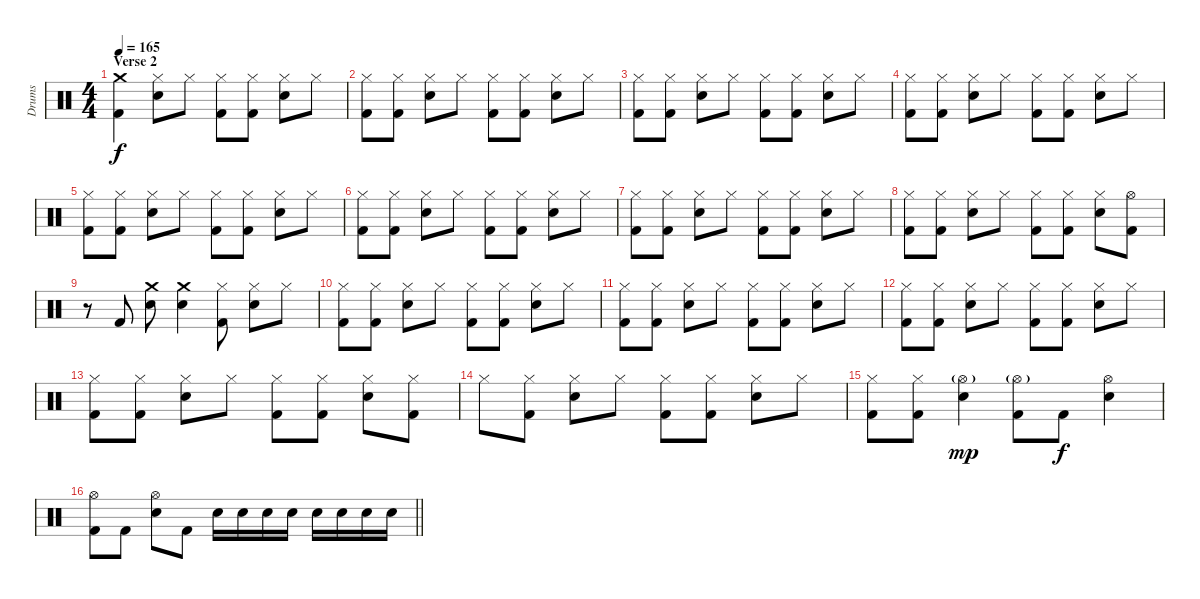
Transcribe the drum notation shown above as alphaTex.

\track ("Drums" "Drums") {instrument percussion}
\staff {score}
\articulation defaults
\ts (4 4)
\section ("" "Verse 2")
\tempo 165
\clef neutral
\ks c
("Crash medium (hit)" "Kick (hit) 2").4{dy f} ("Hi-Hat (closed)" "Electric Snare (hit)").8 "Hi-Hat (closed)".8 ("Hi-Hat (closed)" "Kick (hit) 2").8 ("Hi-Hat (closed)" "Kick (hit) 2").8 ("Hi-Hat (closed)" "Electric Snare (hit)").8 "Hi-Hat (closed)".8 |
("Hi-Hat (closed)" "Kick (hit) 2").8 ("Hi-Hat (closed)" "Kick (hit) 2").8 ("Hi-Hat (closed)" "Electric Snare (hit)").8 "Hi-Hat (closed)".8 ("Hi-Hat (closed)" "Kick (hit) 2").8 ("Hi-Hat (closed)" "Kick (hit) 2").8 ("Hi-Hat (closed)" "Electric Snare (hit)").8 "Hi-Hat (closed)".8 |
("Hi-Hat (closed)" "Kick (hit) 2").8 ("Hi-Hat (closed)" "Kick (hit) 2").8 ("Hi-Hat (closed)" "Electric Snare (hit)").8 "Hi-Hat (closed)".8 ("Hi-Hat (closed)" "Kick (hit) 2").8 ("Hi-Hat (closed)" "Kick (hit) 2").8 ("Hi-Hat (closed)" "Electric Snare (hit)").8 "Hi-Hat (closed)".8 |
("Hi-Hat (closed)" "Kick (hit) 2").8 ("Hi-Hat (closed)" "Kick (hit) 2").8 ("Hi-Hat (closed)" "Electric Snare (hit)").8 "Hi-Hat (closed)".8 ("Hi-Hat (closed)" "Kick (hit) 2").8 ("Hi-Hat (closed)" "Kick (hit) 2").8 ("Hi-Hat (closed)" "Electric Snare (hit)").8 "Hi-Hat (closed)".8 |
("Hi-Hat (closed)" "Kick (hit) 2").8 ("Hi-Hat (closed)" "Kick (hit) 2").8 ("Hi-Hat (closed)" "Electric Snare (hit)").8 "Hi-Hat (closed)".8 ("Hi-Hat (closed)" "Kick (hit) 2").8 ("Hi-Hat (closed)" "Kick (hit) 2").8 ("Hi-Hat (closed)" "Electric Snare (hit)").8 "Hi-Hat (closed)".8 |
("Hi-Hat (closed)" "Kick (hit) 2").8 ("Hi-Hat (closed)" "Kick (hit) 2").8 ("Hi-Hat (closed)" "Electric Snare (hit)").8 "Hi-Hat (closed)".8 ("Hi-Hat (closed)" "Kick (hit) 2").8 ("Hi-Hat (closed)" "Kick (hit) 2").8 ("Hi-Hat (closed)" "Electric Snare (hit)").8 "Hi-Hat (closed)".8 |
("Hi-Hat (closed)" "Kick (hit) 2").8 ("Hi-Hat (closed)" "Kick (hit) 2").8 ("Hi-Hat (closed)" "Electric Snare (hit)").8 "Hi-Hat (closed)".8 ("Hi-Hat (closed)" "Kick (hit) 2").8 ("Hi-Hat (closed)" "Kick (hit) 2").8 ("Hi-Hat (closed)" "Electric Snare (hit)").8 "Hi-Hat (closed)".8 |
("Hi-Hat (closed)" "Kick (hit) 2").8 ("Hi-Hat (closed)" "Kick (hit) 2").8 ("Hi-Hat (closed)" "Electric Snare (hit)").8 "Hi-Hat (closed)".8 ("Hi-Hat (closed)" "Kick (hit) 2").8 ("Hi-Hat (closed)" "Kick (hit) 2").8 ("Hi-Hat (closed)" "Electric Snare (hit)").8 ("Hi-Hat (open)" "Kick (hit) 2").8 |
r.8 "Kick (hit) 2".8 ("Crash medium (hit)" "Electric Snare (hit)").8 ("Crash medium (hit)" "Electric Snare (hit)").4 ("Hi-Hat (closed)" "Kick (hit) 2").8 ("Hi-Hat (closed)" "Electric Snare (hit)").8 "Hi-Hat (closed)".8 |
("Hi-Hat (closed)" "Kick (hit) 2").8 ("Hi-Hat (closed)" "Kick (hit) 2").8 ("Hi-Hat (closed)" "Electric Snare (hit)").8 "Hi-Hat (closed)".8 ("Hi-Hat (closed)" "Kick (hit) 2").8 ("Hi-Hat (closed)" "Kick (hit) 2").8 ("Hi-Hat (closed)" "Electric Snare (hit)").8 "Hi-Hat (closed)".8 |
("Hi-Hat (closed)" "Kick (hit) 2").8 ("Hi-Hat (closed)" "Kick (hit) 2").8 ("Hi-Hat (closed)" "Electric Snare (hit)").8 "Hi-Hat (closed)".8 ("Hi-Hat (closed)" "Kick (hit) 2").8 ("Hi-Hat (closed)" "Kick (hit) 2").8 ("Hi-Hat (closed)" "Electric Snare (hit)").8 "Hi-Hat (closed)".8 |
("Hi-Hat (closed)" "Kick (hit) 2").8 ("Hi-Hat (closed)" "Kick (hit) 2").8 ("Hi-Hat (closed)" "Electric Snare (hit)").8 "Hi-Hat (closed)".8 ("Hi-Hat (closed)" "Kick (hit) 2").8 ("Hi-Hat (closed)" "Kick (hit) 2").8 ("Hi-Hat (closed)" "Electric Snare (hit)").8 "Hi-Hat (closed)".8 |
("Hi-Hat (closed)" "Kick (hit) 2").8 ("Hi-Hat (closed)" "Kick (hit) 2").8 ("Hi-Hat (closed)" "Electric Snare (hit)").8 "Hi-Hat (closed)".8 ("Hi-Hat (closed)" "Kick (hit) 2").8 ("Hi-Hat (closed)" "Kick (hit) 2").8 ("Hi-Hat (closed)" "Electric Snare (hit)").8 ("Hi-Hat (closed)" "Kick (hit) 2").8 |
"Hi-Hat (closed)".8 ("Hi-Hat (closed)" "Kick (hit) 2").8 ("Hi-Hat (closed)" "Electric Snare (hit)").8 "Hi-Hat (closed)".8 ("Hi-Hat (closed)" "Kick (hit) 2").8 ("Hi-Hat (closed)" "Kick (hit) 2").8 ("Hi-Hat (closed)" "Electric Snare (hit)").8 "Hi-Hat (closed)".8 |
("Hi-Hat (closed)" "Kick (hit) 2").8 ("Hi-Hat (closed)" "Kick (hit) 2").8 ("Hi-Hat (open)"{g} "Electric Snare (hit)").4{dy mp} ("Hi-Hat (open)"{g} "Kick (hit) 2").8 "Kick (hit) 2".8{dy f} ("Hi-Hat (open)" "Electric Snare (hit)").4 |
\barLineRight lightlight
("Hi-Hat (open)" "Kick (hit) 2").8 "Kick (hit) 2".8 ("Hi-Hat (open)" "Electric Snare (hit)").8 "Kick (hit) 2".8 "Electric Snare (hit)".16 "Electric Snare (hit)".16 "Electric Snare (hit)".16 "Electric Snare (hit)".16 "Electric Snare (hit)".16 "Electric Snare (hit)".16 "Electric Snare (hit)".16 "Electric Snare (hit)".16
